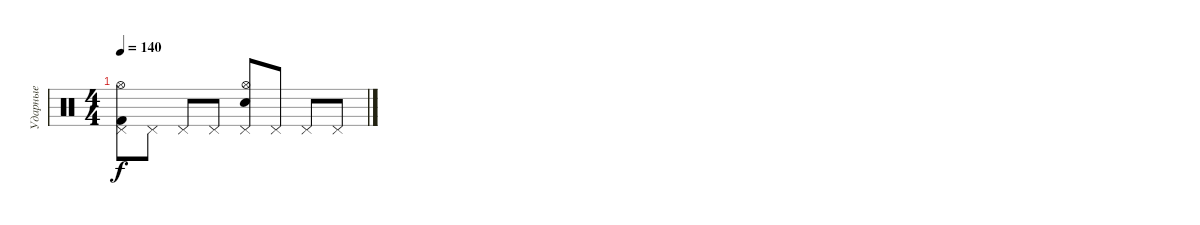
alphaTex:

\track ("Ударные" "Ударные") {instrument percussion}
\staff {score}
\articulation defaults
\ts (4 4)
\tempo 140
\clef neutral
\ks c
("Kick (hit) 2" "Pedal Hi-Hat (hit)" "Hi-Hat (open)").8{dy f} "Pedal Hi-Hat (hit)".8 "Pedal Hi-Hat (hit)".8 "Pedal Hi-Hat (hit)".8 ("Snare (hit) 2" "Pedal Hi-Hat (hit)" "Hi-Hat (open)").8 "Pedal Hi-Hat (hit)".8 "Pedal Hi-Hat (hit)".8 "Pedal Hi-Hat (hit)".8
